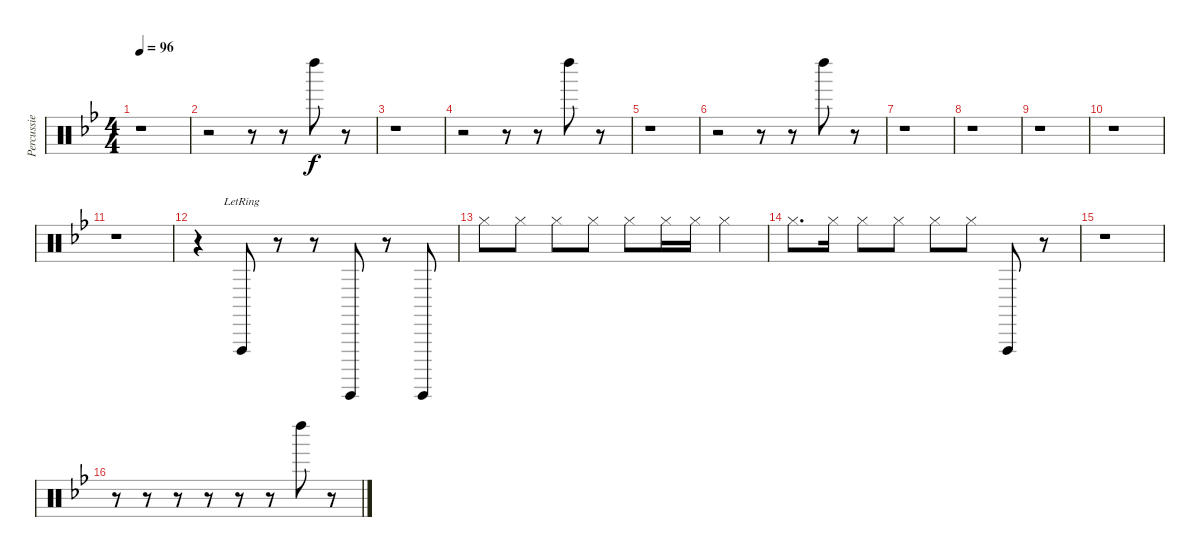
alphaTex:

\track ("Percussie" "Percussie") {instrument percussion}
\staff {score}
\articulation defaults
\ts (4 4)
\tempo 96
\clef neutral
\ks bb
r.1{dy f} |
r.2 r.8 r.8 "Left Maraca (hit)".8 r.8 |
r.1 |
r.2 r.8 r.8 "Left Maraca (hit)".8 r.8 |
r.1 |
r.2 r.8 r.8 "Left Maraca (hit)".8 r.8 |
r.1 |
r.1 |
r.1 |
r.1 |
r.1 |
r.4 "Vibraslap (hit)"{lr}.8 r.8 r.8 "Guiro (hit)".8 r.8 "Guiro (hit)".8 |
"Hi-Hat (closed)".8 "Hi-Hat (closed)".8 "Hi-Hat (closed)".8 "Hi-Hat (closed)".8 "Hi-Hat (closed)".8 "Hi-Hat (closed)".16 "Hi-Hat (closed)".16 "Hi-Hat (closed)".4 |
"Hi-Hat (closed)".8{d} "Hi-Hat (closed)".16 "Hi-Hat (closed)".8 "Hi-Hat (closed)".8 "Hi-Hat (closed)".8 "Hi-Hat (closed)".8 "Vibraslap (hit)".8 r.8 |
r.1 |
r.8 r.8 r.8 r.8 r.8 r.8 "Left Maraca (hit)".8 r.8
